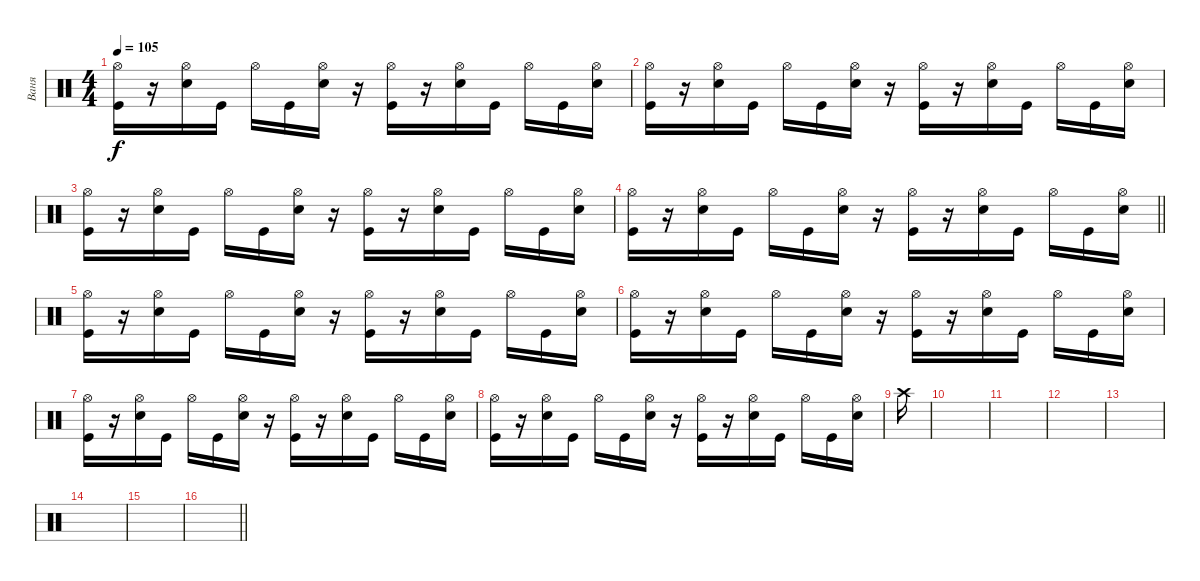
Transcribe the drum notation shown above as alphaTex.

\track ("Ваня" "Ваня") {instrument percussion}
\staff {score}
\articulation defaults
\ts (4 4)
\tempo 105
\clef neutral
\ks c
("Hi-Hat (open)" "Kick (hit)").16{dy f} r.16 ("Hi-Hat (open)" "Snare (hit) 2").16 "Kick (hit)".16 "Hi-Hat (open)".16 "Kick (hit)".16 ("Hi-Hat (open)" "Snare (hit) 2").16 r.16 ("Hi-Hat (open)" "Kick (hit)").16 r.16 ("Hi-Hat (open)" "Snare (hit) 2").16 "Kick (hit)".16 "Hi-Hat (open)".16 "Kick (hit)".16 ("Hi-Hat (open)" "Snare (hit) 2").16 |
("Hi-Hat (open)" "Kick (hit)").16 r.16 ("Hi-Hat (open)" "Snare (hit) 2").16 "Kick (hit)".16 "Hi-Hat (open)".16 "Kick (hit)".16 ("Hi-Hat (open)" "Snare (hit) 2").16 r.16 ("Hi-Hat (open)" "Kick (hit)").16 r.16 ("Hi-Hat (open)" "Snare (hit) 2").16 "Kick (hit)".16 "Hi-Hat (open)".16 "Kick (hit)".16 ("Hi-Hat (open)" "Snare (hit) 2").16 |
("Hi-Hat (open)" "Kick (hit)").16 r.16 ("Hi-Hat (open)" "Snare (hit) 2").16 "Kick (hit)".16 "Hi-Hat (open)".16 "Kick (hit)".16 ("Hi-Hat (open)" "Snare (hit) 2").16 r.16 ("Hi-Hat (open)" "Kick (hit)").16 r.16 ("Hi-Hat (open)" "Snare (hit) 2").16 "Kick (hit)".16 "Hi-Hat (open)".16 "Kick (hit)".16 ("Hi-Hat (open)" "Snare (hit) 2").16 |
\barLineRight lightlight
("Hi-Hat (open)" "Kick (hit)").16 r.16 ("Hi-Hat (open)" "Snare (hit) 2").16 "Kick (hit)".16 "Hi-Hat (open)".16 "Kick (hit)".16 ("Hi-Hat (open)" "Snare (hit) 2").16 r.16 ("Hi-Hat (open)" "Kick (hit)").16 r.16 ("Hi-Hat (open)" "Snare (hit) 2").16 "Kick (hit)".16 "Hi-Hat (open)".16 "Kick (hit)".16 ("Hi-Hat (open)" "Snare (hit) 2").16 |
("Hi-Hat (open)" "Kick (hit)").16 r.16 ("Hi-Hat (open)" "Snare (hit) 2").16 "Kick (hit)".16 "Hi-Hat (open)".16 "Kick (hit)".16 ("Hi-Hat (open)" "Snare (hit) 2").16 r.16 ("Hi-Hat (open)" "Kick (hit)").16 r.16 ("Hi-Hat (open)" "Snare (hit) 2").16 "Kick (hit)".16 "Hi-Hat (open)".16 "Kick (hit)".16 ("Hi-Hat (open)" "Snare (hit) 2").16 |
("Hi-Hat (open)" "Kick (hit)").16 r.16 ("Hi-Hat (open)" "Snare (hit) 2").16 "Kick (hit)".16 "Hi-Hat (open)".16 "Kick (hit)".16 ("Hi-Hat (open)" "Snare (hit) 2").16 r.16 ("Hi-Hat (open)" "Kick (hit)").16 r.16 ("Hi-Hat (open)" "Snare (hit) 2").16 "Kick (hit)".16 "Hi-Hat (open)".16 "Kick (hit)".16 ("Hi-Hat (open)" "Snare (hit) 2").16 |
("Hi-Hat (open)" "Kick (hit)").16 r.16 ("Hi-Hat (open)" "Snare (hit) 2").16 "Kick (hit)".16 "Hi-Hat (open)".16 "Kick (hit)".16 ("Hi-Hat (open)" "Snare (hit) 2").16 r.16 ("Hi-Hat (open)" "Kick (hit)").16 r.16 ("Hi-Hat (open)" "Snare (hit) 2").16 "Kick (hit)".16 "Hi-Hat (open)".16 "Kick (hit)".16 ("Hi-Hat (open)" "Snare (hit) 2").16 |
("Hi-Hat (open)" "Kick (hit)").16 r.16 ("Hi-Hat (open)" "Snare (hit) 2").16 "Kick (hit)".16 "Hi-Hat (open)".16 "Kick (hit)".16 ("Hi-Hat (open)" "Snare (hit) 2").16 r.16 ("Hi-Hat (open)" "Kick (hit)").16 r.16 ("Hi-Hat (open)" "Snare (hit) 2").16 "Kick (hit)".16 "Hi-Hat (open)".16 "Kick (hit)".16 ("Hi-Hat (open)" "Snare (hit) 2").16 |
"Crash high (hit)".16 |
|
|
|
|
|
|
\barLineRight lightlight
